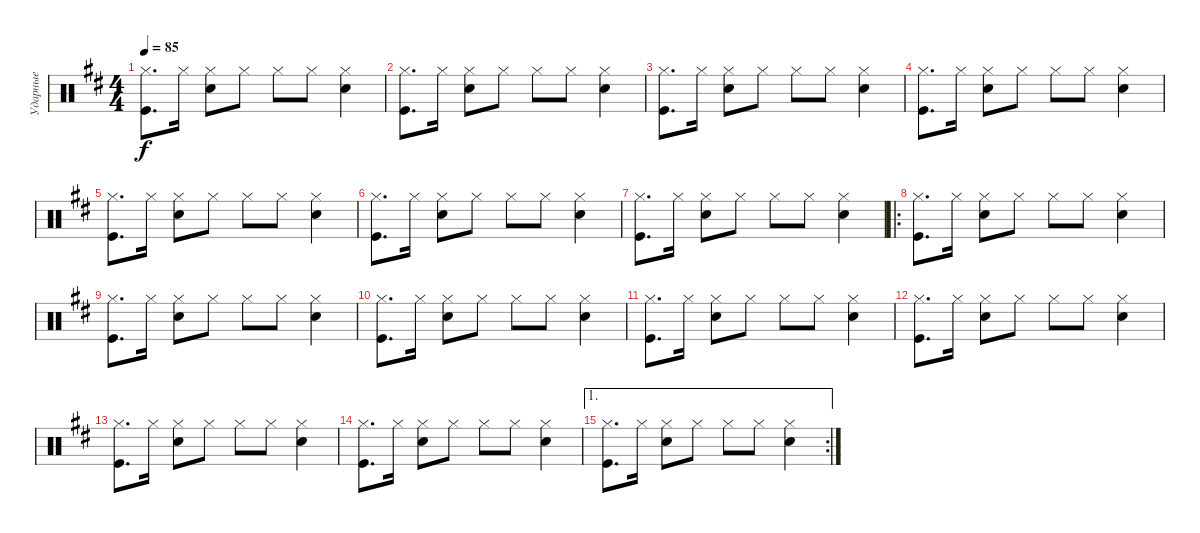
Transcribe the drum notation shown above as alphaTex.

\track ("Ударные" "Ударные") {instrument percussion}
\staff {score}
\articulation defaults
\ts (4 4)
\tempo 85
\clef neutral
\ks d
("Hi-Hat (closed)" "Kick (hit)").8{d dy f} "Hi-Hat (closed)".16 ("Hi-Hat (closed)" "Snare (hit) 2").8 "Hi-Hat (closed)".8 "Hi-Hat (closed)".8 "Hi-Hat (closed)".8 ("Hi-Hat (closed)" "Snare (hit) 2").4 |
("Hi-Hat (closed)" "Kick (hit)").8{d} "Hi-Hat (closed)".16 ("Hi-Hat (closed)" "Snare (hit) 2").8 "Hi-Hat (closed)".8 "Hi-Hat (closed)".8 "Hi-Hat (closed)".8 ("Hi-Hat (closed)" "Snare (hit) 2").4 |
("Hi-Hat (closed)" "Kick (hit)").8{d} "Hi-Hat (closed)".16 ("Hi-Hat (closed)" "Snare (hit) 2").8 "Hi-Hat (closed)".8 "Hi-Hat (closed)".8 "Hi-Hat (closed)".8 ("Hi-Hat (closed)" "Snare (hit) 2").4 |
("Hi-Hat (closed)" "Kick (hit)").8{d} "Hi-Hat (closed)".16 ("Hi-Hat (closed)" "Snare (hit) 2").8 "Hi-Hat (closed)".8 "Hi-Hat (closed)".8 "Hi-Hat (closed)".8 ("Hi-Hat (closed)" "Snare (hit) 2").4 |
("Hi-Hat (closed)" "Kick (hit)").8{d} "Hi-Hat (closed)".16 ("Hi-Hat (closed)" "Snare (hit) 2").8 "Hi-Hat (closed)".8 "Hi-Hat (closed)".8 "Hi-Hat (closed)".8 ("Hi-Hat (closed)" "Snare (hit) 2").4 |
("Hi-Hat (closed)" "Kick (hit)").8{d} "Hi-Hat (closed)".16 ("Hi-Hat (closed)" "Snare (hit) 2").8 "Hi-Hat (closed)".8 "Hi-Hat (closed)".8 "Hi-Hat (closed)".8 ("Hi-Hat (closed)" "Snare (hit) 2").4 |
("Hi-Hat (closed)" "Kick (hit)").8{d} "Hi-Hat (closed)".16 ("Hi-Hat (closed)" "Snare (hit) 2").8 "Hi-Hat (closed)".8 "Hi-Hat (closed)".8 "Hi-Hat (closed)".8 ("Hi-Hat (closed)" "Snare (hit) 2").4 |
\ro
("Hi-Hat (closed)" "Kick (hit)").8{d} "Hi-Hat (closed)".16 ("Hi-Hat (closed)" "Snare (hit) 2").8 "Hi-Hat (closed)".8 "Hi-Hat (closed)".8 "Hi-Hat (closed)".8 ("Hi-Hat (closed)" "Snare (hit) 2").4 |
("Hi-Hat (closed)" "Kick (hit)").8{d} "Hi-Hat (closed)".16 ("Hi-Hat (closed)" "Snare (hit) 2").8 "Hi-Hat (closed)".8 "Hi-Hat (closed)".8 "Hi-Hat (closed)".8 ("Hi-Hat (closed)" "Snare (hit) 2").4 |
("Hi-Hat (closed)" "Kick (hit)").8{d} "Hi-Hat (closed)".16 ("Hi-Hat (closed)" "Snare (hit) 2").8 "Hi-Hat (closed)".8 "Hi-Hat (closed)".8 "Hi-Hat (closed)".8 ("Hi-Hat (closed)" "Snare (hit) 2").4 |
("Hi-Hat (closed)" "Kick (hit)").8{d} "Hi-Hat (closed)".16 ("Hi-Hat (closed)" "Snare (hit) 2").8 "Hi-Hat (closed)".8 "Hi-Hat (closed)".8 "Hi-Hat (closed)".8 ("Hi-Hat (closed)" "Snare (hit) 2").4 |
("Hi-Hat (closed)" "Kick (hit)").8{d} "Hi-Hat (closed)".16 ("Hi-Hat (closed)" "Snare (hit) 2").8 "Hi-Hat (closed)".8 "Hi-Hat (closed)".8 "Hi-Hat (closed)".8 ("Hi-Hat (closed)" "Snare (hit) 2").4 |
("Hi-Hat (closed)" "Kick (hit)").8{d} "Hi-Hat (closed)".16 ("Hi-Hat (closed)" "Snare (hit) 2").8 "Hi-Hat (closed)".8 "Hi-Hat (closed)".8 "Hi-Hat (closed)".8 ("Hi-Hat (closed)" "Snare (hit) 2").4 |
("Hi-Hat (closed)" "Kick (hit)").8{d} "Hi-Hat (closed)".16 ("Hi-Hat (closed)" "Snare (hit) 2").8 "Hi-Hat (closed)".8 "Hi-Hat (closed)".8 "Hi-Hat (closed)".8 ("Hi-Hat (closed)" "Snare (hit) 2").4 |
\ae 1
\rc 2
("Hi-Hat (closed)" "Kick (hit)").8{d} "Hi-Hat (closed)".16 ("Hi-Hat (closed)" "Snare (hit) 2").8 "Hi-Hat (closed)".8 "Hi-Hat (closed)".8 "Hi-Hat (closed)".8 ("Hi-Hat (closed)" "Snare (hit) 2").4
